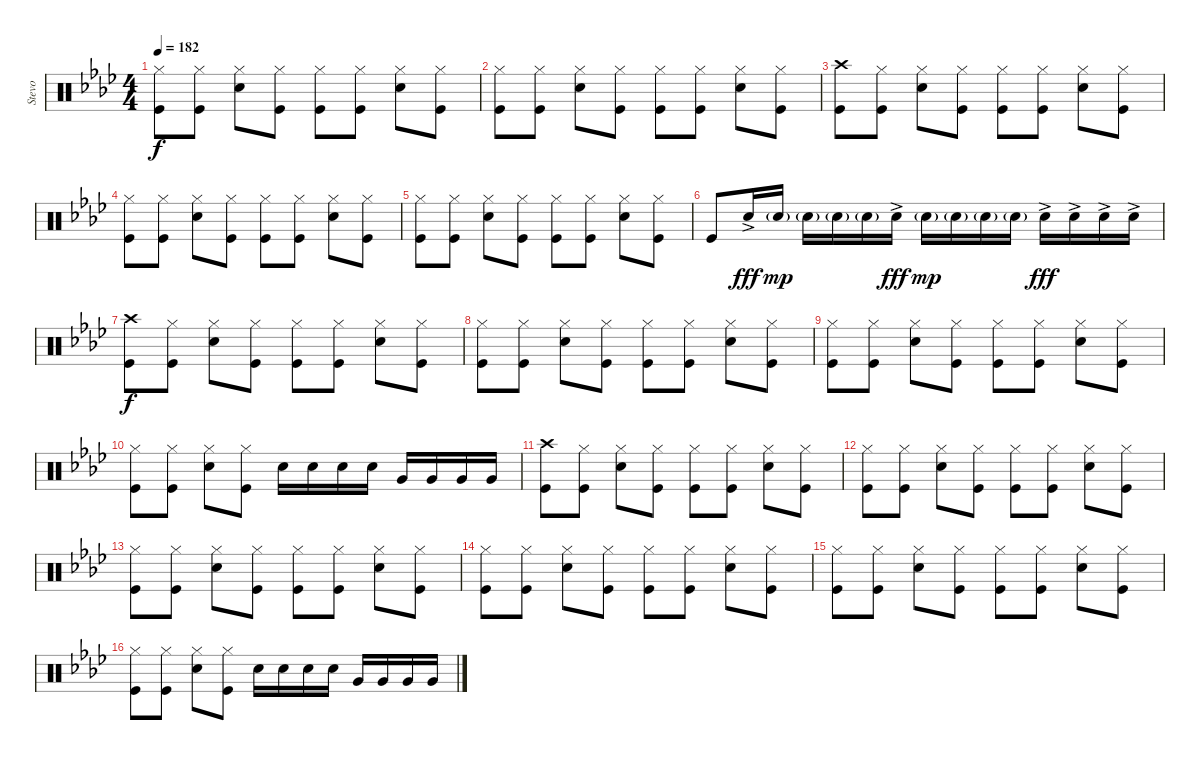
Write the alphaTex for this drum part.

\track ("Stevo" "Stevo") {instrument percussion}
\staff {score}
\articulation defaults
\ts (4 4)
\tempo 182
\clef neutral
\ks ab
("Hi-Hat (closed)" "Kick (hit)").8{dy f} ("Hi-Hat (closed)" "Kick (hit)").8 ("Hi-Hat (closed)" "Snare (hit) 2").8 ("Hi-Hat (closed)" "Kick (hit)").8 ("Hi-Hat (closed)" "Kick (hit)").8 ("Hi-Hat (closed)" "Kick (hit)").8 ("Hi-Hat (closed)" "Snare (hit) 2").8 ("Hi-Hat (closed)" "Kick (hit)").8 |
("Hi-Hat (closed)" "Kick (hit)").8 ("Hi-Hat (closed)" "Kick (hit)").8 ("Hi-Hat (closed)" "Snare (hit) 2").8 ("Hi-Hat (closed)" "Kick (hit)").8 ("Hi-Hat (closed)" "Kick (hit)").8 ("Hi-Hat (closed)" "Kick (hit)").8 ("Hi-Hat (closed)" "Snare (hit) 2").8 ("Hi-Hat (closed)" "Kick (hit)").8 |
("Crash high (hit)" "Kick (hit)").8 ("Hi-Hat (closed)" "Kick (hit)").8 ("Hi-Hat (closed)" "Snare (hit) 2").8 ("Hi-Hat (closed)" "Kick (hit)").8 ("Hi-Hat (closed)" "Kick (hit)").8 ("Hi-Hat (closed)" "Kick (hit)").8 ("Hi-Hat (closed)" "Snare (hit) 2").8 ("Hi-Hat (closed)" "Kick (hit)").8 |
("Hi-Hat (closed)" "Kick (hit)").8 ("Hi-Hat (closed)" "Kick (hit)").8 ("Hi-Hat (closed)" "Snare (hit) 2").8 ("Hi-Hat (closed)" "Kick (hit)").8 ("Hi-Hat (closed)" "Kick (hit)").8 ("Hi-Hat (closed)" "Kick (hit)").8 ("Hi-Hat (closed)" "Snare (hit) 2").8 ("Hi-Hat (closed)" "Kick (hit)").8 |
("Hi-Hat (closed)" "Kick (hit)").8 ("Hi-Hat (closed)" "Kick (hit)").8 ("Hi-Hat (closed)" "Snare (hit) 2").8 ("Hi-Hat (closed)" "Kick (hit)").8 ("Hi-Hat (closed)" "Kick (hit)").8 ("Hi-Hat (closed)" "Kick (hit)").8 ("Hi-Hat (closed)" "Snare (hit) 2").8 ("Hi-Hat (closed)" "Kick (hit)").8 |
"Kick (hit)".8 "Snare (hit) 2"{ac}.16{dy fff} "Snare (hit) 2"{g}.16{dy mp} "Snare (hit) 2"{g}.16 "Snare (hit) 2"{g}.16 "Snare (hit) 2"{g}.16 "Snare (hit) 2"{ac}.16{dy fff} "Snare (hit) 2"{g}.16{dy mp} "Snare (hit) 2"{g}.16 "Snare (hit) 2"{g}.16 "Snare (hit) 2"{g}.16 "Snare (hit) 2"{ac}.16{dy fff} "Snare (hit) 2"{ac}.16 "Snare (hit) 2"{ac}.16 "Snare (hit) 2"{ac}.16 |
("Crash high (hit)" "Kick (hit)").8{dy f} ("Hi-Hat (closed)" "Kick (hit)").8 ("Hi-Hat (closed)" "Snare (hit) 2").8 ("Hi-Hat (closed)" "Kick (hit)").8 ("Hi-Hat (closed)" "Kick (hit)").8 ("Hi-Hat (closed)" "Kick (hit)").8 ("Hi-Hat (closed)" "Snare (hit) 2").8 ("Hi-Hat (closed)" "Kick (hit)").8 |
("Hi-Hat (closed)" "Kick (hit)").8 ("Hi-Hat (closed)" "Kick (hit)").8 ("Hi-Hat (closed)" "Snare (hit) 2").8 ("Hi-Hat (closed)" "Kick (hit)").8 ("Hi-Hat (closed)" "Kick (hit)").8 ("Hi-Hat (closed)" "Kick (hit)").8 ("Hi-Hat (closed)" "Snare (hit) 2").8 ("Hi-Hat (closed)" "Kick (hit)").8 |
("Hi-Hat (closed)" "Kick (hit)").8 ("Hi-Hat (closed)" "Kick (hit)").8 ("Hi-Hat (closed)" "Snare (hit) 2").8 ("Hi-Hat (closed)" "Kick (hit)").8 ("Hi-Hat (closed)" "Kick (hit)").8 ("Hi-Hat (closed)" "Kick (hit)").8 ("Hi-Hat (closed)" "Snare (hit) 2").8 ("Hi-Hat (closed)" "Kick (hit)").8 |
("Hi-Hat (closed)" "Kick (hit)").8 ("Hi-Hat (closed)" "Kick (hit)").8 ("Hi-Hat (closed)" "Snare (hit) 2").8 ("Hi-Hat (closed)" "Kick (hit)").8 "Snare (hit) 2".16 "Snare (hit) 2".16 "Snare (hit) 2".16 "Snare (hit) 2".16 "Very Low Tom (hit)".16 "Very Low Tom (hit)".16 "Very Low Tom (hit)".16 "Very Low Tom (hit)".16 |
("Crash high (hit)" "Kick (hit)").8 ("Hi-Hat (closed)" "Kick (hit)").8 ("Hi-Hat (closed)" "Snare (hit) 2").8 ("Hi-Hat (closed)" "Kick (hit)").8 ("Hi-Hat (closed)" "Kick (hit)").8 ("Hi-Hat (closed)" "Kick (hit)").8 ("Hi-Hat (closed)" "Snare (hit) 2").8 ("Hi-Hat (closed)" "Kick (hit)").8 |
("Hi-Hat (closed)" "Kick (hit)").8 ("Hi-Hat (closed)" "Kick (hit)").8 ("Hi-Hat (closed)" "Snare (hit) 2").8 ("Hi-Hat (closed)" "Kick (hit)").8 ("Hi-Hat (closed)" "Kick (hit)").8 ("Hi-Hat (closed)" "Kick (hit)").8 ("Hi-Hat (closed)" "Snare (hit) 2").8 ("Hi-Hat (closed)" "Kick (hit)").8 |
("Hi-Hat (closed)" "Kick (hit)").8 ("Hi-Hat (closed)" "Kick (hit)").8 ("Hi-Hat (closed)" "Snare (hit) 2").8 ("Hi-Hat (closed)" "Kick (hit)").8 ("Hi-Hat (closed)" "Kick (hit)").8 ("Hi-Hat (closed)" "Kick (hit)").8 ("Hi-Hat (closed)" "Snare (hit) 2").8 ("Hi-Hat (closed)" "Kick (hit)").8 |
("Hi-Hat (closed)" "Kick (hit)").8 ("Hi-Hat (closed)" "Kick (hit)").8 ("Hi-Hat (closed)" "Snare (hit) 2").8 ("Hi-Hat (closed)" "Kick (hit)").8 ("Hi-Hat (closed)" "Kick (hit)").8 ("Hi-Hat (closed)" "Kick (hit)").8 ("Hi-Hat (closed)" "Snare (hit) 2").8 ("Hi-Hat (closed)" "Kick (hit)").8 |
("Hi-Hat (closed)" "Kick (hit)").8 ("Hi-Hat (closed)" "Kick (hit)").8 ("Hi-Hat (closed)" "Snare (hit) 2").8 ("Hi-Hat (closed)" "Kick (hit)").8 ("Hi-Hat (closed)" "Kick (hit)").8 ("Hi-Hat (closed)" "Kick (hit)").8 ("Hi-Hat (closed)" "Snare (hit) 2").8 ("Hi-Hat (closed)" "Kick (hit)").8 |
("Hi-Hat (closed)" "Kick (hit)").8 ("Hi-Hat (closed)" "Kick (hit)").8 ("Hi-Hat (closed)" "Snare (hit) 2").8 ("Hi-Hat (closed)" "Kick (hit)").8 "Snare (hit) 2".16 "Snare (hit) 2".16 "Snare (hit) 2".16 "Snare (hit) 2".16 "Very Low Tom (hit)".16 "Very Low Tom (hit)".16 "Very Low Tom (hit)".16 "Very Low Tom (hit)".16
